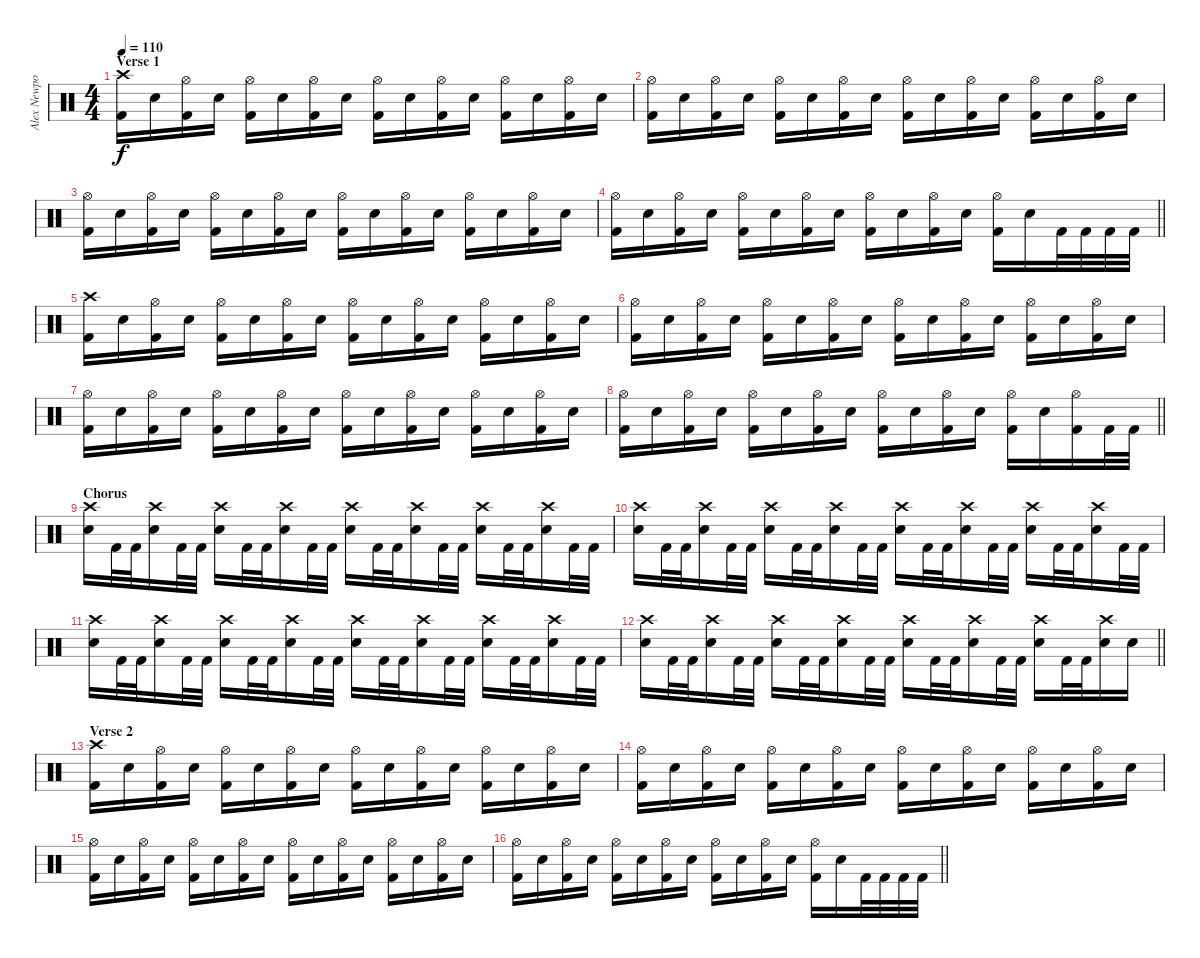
\track ("Alex Newport" "Alex Newpo") {instrument percussion}
\staff {score}
\articulation defaults
\ts (4 4)
\section ("" "Verse 1")
\tempo 110
\clef neutral
\ks c
("Crash high (hit)" "Kick (hit) 2").16{dy f} "Electric Snare (hit)".16 ("Hi-Hat (open)" "Kick (hit) 2").16 "Electric Snare (hit)".16 ("Hi-Hat (open)" "Kick (hit) 2").16 "Electric Snare (hit)".16 ("Hi-Hat (open)" "Kick (hit) 2").16 "Electric Snare (hit)".16 ("Hi-Hat (open)" "Kick (hit) 2").16 "Electric Snare (hit)".16 ("Hi-Hat (open)" "Kick (hit) 2").16 "Electric Snare (hit)".16 ("Hi-Hat (open)" "Kick (hit) 2").16 "Electric Snare (hit)".16 ("Hi-Hat (open)" "Kick (hit) 2").16 "Electric Snare (hit)".16 |
("Hi-Hat (open)" "Kick (hit) 2").16 "Electric Snare (hit)".16 ("Hi-Hat (open)" "Kick (hit) 2").16 "Electric Snare (hit)".16 ("Hi-Hat (open)" "Kick (hit) 2").16 "Electric Snare (hit)".16 ("Hi-Hat (open)" "Kick (hit) 2").16 "Electric Snare (hit)".16 ("Hi-Hat (open)" "Kick (hit) 2").16 "Electric Snare (hit)".16 ("Hi-Hat (open)" "Kick (hit) 2").16 "Electric Snare (hit)".16 ("Hi-Hat (open)" "Kick (hit) 2").16 "Electric Snare (hit)".16 ("Hi-Hat (open)" "Kick (hit) 2").16 "Electric Snare (hit)".16 |
("Hi-Hat (open)" "Kick (hit) 2").16 "Electric Snare (hit)".16 ("Hi-Hat (open)" "Kick (hit) 2").16 "Electric Snare (hit)".16 ("Hi-Hat (open)" "Kick (hit) 2").16 "Electric Snare (hit)".16 ("Hi-Hat (open)" "Kick (hit) 2").16 "Electric Snare (hit)".16 ("Hi-Hat (open)" "Kick (hit) 2").16 "Electric Snare (hit)".16 ("Hi-Hat (open)" "Kick (hit) 2").16 "Electric Snare (hit)".16 ("Hi-Hat (open)" "Kick (hit) 2").16 "Electric Snare (hit)".16 ("Hi-Hat (open)" "Kick (hit) 2").16 "Electric Snare (hit)".16 |
\barLineRight lightlight
("Hi-Hat (open)" "Kick (hit) 2").16 "Electric Snare (hit)".16 ("Hi-Hat (open)" "Kick (hit) 2").16 "Electric Snare (hit)".16 ("Hi-Hat (open)" "Kick (hit) 2").16 "Electric Snare (hit)".16 ("Hi-Hat (open)" "Kick (hit) 2").16 "Electric Snare (hit)".16 ("Hi-Hat (open)" "Kick (hit) 2").16 "Electric Snare (hit)".16 ("Hi-Hat (open)" "Kick (hit) 2").16 "Electric Snare (hit)".16 ("Hi-Hat (open)" "Kick (hit) 2").16 "Electric Snare (hit)".16 "Kick (hit) 2".32 "Kick (hit) 2".32 "Kick (hit) 2".32 "Kick (hit) 2".32 |
("Crash high (hit)" "Kick (hit) 2").16 "Electric Snare (hit)".16 ("Hi-Hat (open)" "Kick (hit) 2").16 "Electric Snare (hit)".16 ("Hi-Hat (open)" "Kick (hit) 2").16 "Electric Snare (hit)".16 ("Hi-Hat (open)" "Kick (hit) 2").16 "Electric Snare (hit)".16 ("Hi-Hat (open)" "Kick (hit) 2").16 "Electric Snare (hit)".16 ("Hi-Hat (open)" "Kick (hit) 2").16 "Electric Snare (hit)".16 ("Hi-Hat (open)" "Kick (hit) 2").16 "Electric Snare (hit)".16 ("Hi-Hat (open)" "Kick (hit) 2").16 "Electric Snare (hit)".16 |
("Hi-Hat (open)" "Kick (hit) 2").16 "Electric Snare (hit)".16 ("Hi-Hat (open)" "Kick (hit) 2").16 "Electric Snare (hit)".16 ("Hi-Hat (open)" "Kick (hit) 2").16 "Electric Snare (hit)".16 ("Hi-Hat (open)" "Kick (hit) 2").16 "Electric Snare (hit)".16 ("Hi-Hat (open)" "Kick (hit) 2").16 "Electric Snare (hit)".16 ("Hi-Hat (open)" "Kick (hit) 2").16 "Electric Snare (hit)".16 ("Hi-Hat (open)" "Kick (hit) 2").16 "Electric Snare (hit)".16 ("Hi-Hat (open)" "Kick (hit) 2").16 "Electric Snare (hit)".16 |
("Hi-Hat (open)" "Kick (hit) 2").16 "Electric Snare (hit)".16 ("Hi-Hat (open)" "Kick (hit) 2").16 "Electric Snare (hit)".16 ("Hi-Hat (open)" "Kick (hit) 2").16 "Electric Snare (hit)".16 ("Hi-Hat (open)" "Kick (hit) 2").16 "Electric Snare (hit)".16 ("Hi-Hat (open)" "Kick (hit) 2").16 "Electric Snare (hit)".16 ("Hi-Hat (open)" "Kick (hit) 2").16 "Electric Snare (hit)".16 ("Hi-Hat (open)" "Kick (hit) 2").16 "Electric Snare (hit)".16 ("Hi-Hat (open)" "Kick (hit) 2").16 "Electric Snare (hit)".16 |
\barLineRight lightlight
("Hi-Hat (open)" "Kick (hit) 2").16 "Electric Snare (hit)".16 ("Hi-Hat (open)" "Kick (hit) 2").16 "Electric Snare (hit)".16 ("Hi-Hat (open)" "Kick (hit) 2").16 "Electric Snare (hit)".16 ("Hi-Hat (open)" "Kick (hit) 2").16 "Electric Snare (hit)".16 ("Hi-Hat (open)" "Kick (hit) 2").16 "Electric Snare (hit)".16 ("Hi-Hat (open)" "Kick (hit) 2").16 "Electric Snare (hit)".16 ("Hi-Hat (open)" "Kick (hit) 2").16 "Electric Snare (hit)".16 ("Hi-Hat (open)" "Kick (hit) 2").16 "Kick (hit) 2".32 "Kick (hit) 2".32 |
\section ("" "Chorus")
("Crash high (hit)" "Electric Snare (hit)").16 "Kick (hit) 2".32 "Kick (hit) 2".32 ("Crash high (hit)" "Electric Snare (hit)").16 "Kick (hit) 2".32 "Kick (hit) 2".32 ("Crash high (hit)" "Electric Snare (hit)").16 "Kick (hit) 2".32 "Kick (hit) 2".32 ("Crash high (hit)" "Electric Snare (hit)").16 "Kick (hit) 2".32 "Kick (hit) 2".32 ("Crash high (hit)" "Electric Snare (hit)").16 "Kick (hit) 2".32 "Kick (hit) 2".32 ("Crash high (hit)" "Electric Snare (hit)").16 "Kick (hit) 2".32 "Kick (hit) 2".32 ("Crash high (hit)" "Electric Snare (hit)").16 "Kick (hit) 2".32 "Kick (hit) 2".32 ("Crash high (hit)" "Electric Snare (hit)").16 "Kick (hit) 2".32 "Kick (hit) 2".32 |
("Crash high (hit)" "Electric Snare (hit)").16 "Kick (hit) 2".32 "Kick (hit) 2".32 ("Crash high (hit)" "Electric Snare (hit)").16 "Kick (hit) 2".32 "Kick (hit) 2".32 ("Crash high (hit)" "Electric Snare (hit)").16 "Kick (hit) 2".32 "Kick (hit) 2".32 ("Crash high (hit)" "Electric Snare (hit)").16 "Kick (hit) 2".32 "Kick (hit) 2".32 ("Crash high (hit)" "Electric Snare (hit)").16 "Kick (hit) 2".32 "Kick (hit) 2".32 ("Crash high (hit)" "Electric Snare (hit)").16 "Kick (hit) 2".32 "Kick (hit) 2".32 ("Crash high (hit)" "Electric Snare (hit)").16 "Kick (hit) 2".32 "Kick (hit) 2".32 ("Crash high (hit)" "Electric Snare (hit)").16 "Kick (hit) 2".32 "Kick (hit) 2".32 |
("Crash high (hit)" "Electric Snare (hit)").16 "Kick (hit) 2".32 "Kick (hit) 2".32 ("Crash high (hit)" "Electric Snare (hit)").16 "Kick (hit) 2".32 "Kick (hit) 2".32 ("Crash high (hit)" "Electric Snare (hit)").16 "Kick (hit) 2".32 "Kick (hit) 2".32 ("Crash high (hit)" "Electric Snare (hit)").16 "Kick (hit) 2".32 "Kick (hit) 2".32 ("Crash high (hit)" "Electric Snare (hit)").16 "Kick (hit) 2".32 "Kick (hit) 2".32 ("Crash high (hit)" "Electric Snare (hit)").16 "Kick (hit) 2".32 "Kick (hit) 2".32 ("Crash high (hit)" "Electric Snare (hit)").16 "Kick (hit) 2".32 "Kick (hit) 2".32 ("Crash high (hit)" "Electric Snare (hit)").16 "Kick (hit) 2".32 "Kick (hit) 2".32 |
\barLineRight lightlight
("Crash high (hit)" "Electric Snare (hit)").16 "Kick (hit) 2".32 "Kick (hit) 2".32 ("Crash high (hit)" "Electric Snare (hit)").16 "Kick (hit) 2".32 "Kick (hit) 2".32 ("Crash high (hit)" "Electric Snare (hit)").16 "Kick (hit) 2".32 "Kick (hit) 2".32 ("Crash high (hit)" "Electric Snare (hit)").16 "Kick (hit) 2".32 "Kick (hit) 2".32 ("Crash high (hit)" "Electric Snare (hit)").16 "Kick (hit) 2".32 "Kick (hit) 2".32 ("Crash high (hit)" "Electric Snare (hit)").16 "Kick (hit) 2".32 "Kick (hit) 2".32 ("Crash high (hit)" "Electric Snare (hit)").16 "Kick (hit) 2".32 "Kick (hit) 2".32 ("Crash high (hit)" "Electric Snare (hit)").16 "Electric Snare (hit)".16 |
\section ("" "Verse 2")
("Crash high (hit)" "Kick (hit) 2").16 "Electric Snare (hit)".16 ("Hi-Hat (open)" "Kick (hit) 2").16 "Electric Snare (hit)".16 ("Hi-Hat (open)" "Kick (hit) 2").16 "Electric Snare (hit)".16 ("Hi-Hat (open)" "Kick (hit) 2").16 "Electric Snare (hit)".16 ("Hi-Hat (open)" "Kick (hit) 2").16 "Electric Snare (hit)".16 ("Hi-Hat (open)" "Kick (hit) 2").16 "Electric Snare (hit)".16 ("Hi-Hat (open)" "Kick (hit) 2").16 "Electric Snare (hit)".16 ("Hi-Hat (open)" "Kick (hit) 2").16 "Electric Snare (hit)".16 |
("Hi-Hat (open)" "Kick (hit) 2").16 "Electric Snare (hit)".16 ("Hi-Hat (open)" "Kick (hit) 2").16 "Electric Snare (hit)".16 ("Hi-Hat (open)" "Kick (hit) 2").16 "Electric Snare (hit)".16 ("Hi-Hat (open)" "Kick (hit) 2").16 "Electric Snare (hit)".16 ("Hi-Hat (open)" "Kick (hit) 2").16 "Electric Snare (hit)".16 ("Hi-Hat (open)" "Kick (hit) 2").16 "Electric Snare (hit)".16 ("Hi-Hat (open)" "Kick (hit) 2").16 "Electric Snare (hit)".16 ("Hi-Hat (open)" "Kick (hit) 2").16 "Electric Snare (hit)".16 |
("Hi-Hat (open)" "Kick (hit) 2").16 "Electric Snare (hit)".16 ("Hi-Hat (open)" "Kick (hit) 2").16 "Electric Snare (hit)".16 ("Hi-Hat (open)" "Kick (hit) 2").16 "Electric Snare (hit)".16 ("Hi-Hat (open)" "Kick (hit) 2").16 "Electric Snare (hit)".16 ("Hi-Hat (open)" "Kick (hit) 2").16 "Electric Snare (hit)".16 ("Hi-Hat (open)" "Kick (hit) 2").16 "Electric Snare (hit)".16 ("Hi-Hat (open)" "Kick (hit) 2").16 "Electric Snare (hit)".16 ("Hi-Hat (open)" "Kick (hit) 2").16 "Electric Snare (hit)".16 |
\barLineRight lightlight
("Hi-Hat (open)" "Kick (hit) 2").16 "Electric Snare (hit)".16 ("Hi-Hat (open)" "Kick (hit) 2").16 "Electric Snare (hit)".16 ("Hi-Hat (open)" "Kick (hit) 2").16 "Electric Snare (hit)".16 ("Hi-Hat (open)" "Kick (hit) 2").16 "Electric Snare (hit)".16 ("Hi-Hat (open)" "Kick (hit) 2").16 "Electric Snare (hit)".16 ("Hi-Hat (open)" "Kick (hit) 2").16 "Electric Snare (hit)".16 ("Hi-Hat (open)" "Kick (hit) 2").16 "Electric Snare (hit)".16 "Kick (hit) 2".32 "Kick (hit) 2".32 "Kick (hit) 2".32 "Kick (hit) 2".32
